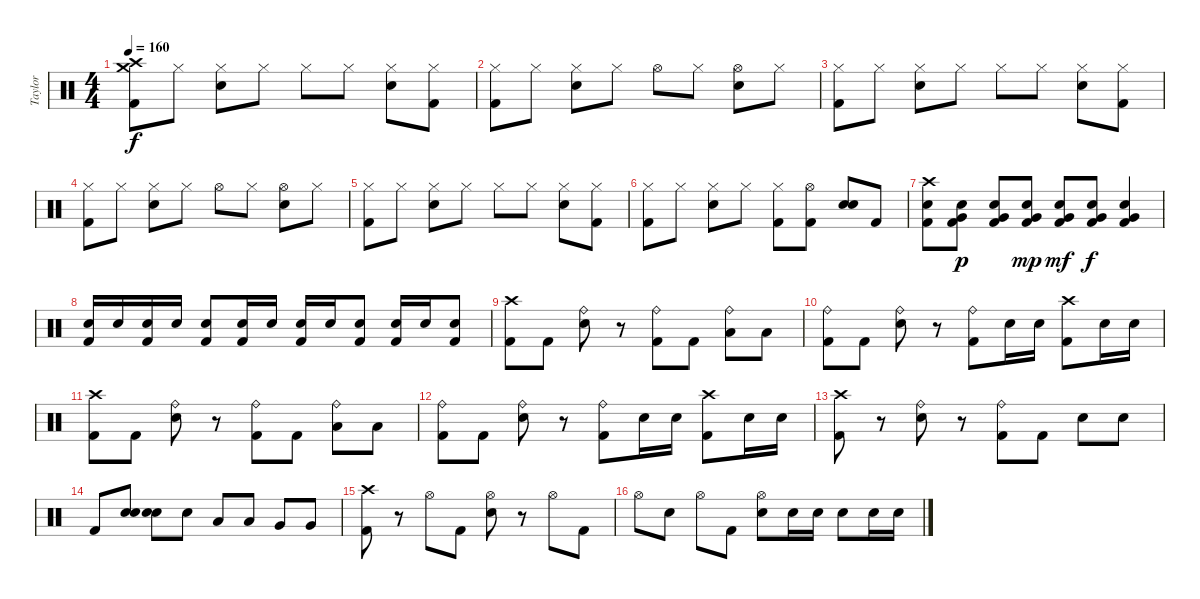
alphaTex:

\track ("Taylor" "Taylor") {instrument percussion}
\staff {score}
\articulation defaults
\ts (4 4)
\tempo 160
\clef neutral
\ks c
("Crash high (hit)" "Crash medium (hit)" "Kick (hit) 2").8{dy f} "Hi-Hat (closed)".8 ("Hi-Hat (closed)" "Electric Snare (hit)").8 "Hi-Hat (closed)".8 "Hi-Hat (closed)".8 "Hi-Hat (closed)".8 ("Hi-Hat (closed)" "Electric Snare (hit)").8 ("Hi-Hat (closed)" "Kick (hit) 2").8 |
("Hi-Hat (closed)" "Kick (hit) 2").8 "Hi-Hat (closed)".8 ("Hi-Hat (closed)" "Electric Snare (hit)").8 "Hi-Hat (closed)".8 "Hi-Hat (open)".8 "Hi-Hat (closed)".8 ("Hi-Hat (open)" "Electric Snare (hit)").8 "Hi-Hat (closed)".8 |
("Hi-Hat (closed)" "Kick (hit) 2").8 "Hi-Hat (closed)".8 ("Hi-Hat (closed)" "Electric Snare (hit)").8 "Hi-Hat (closed)".8 "Hi-Hat (closed)".8 "Hi-Hat (closed)".8 ("Hi-Hat (closed)" "Electric Snare (hit)").8 ("Hi-Hat (closed)" "Kick (hit) 2").8 |
("Hi-Hat (closed)" "Kick (hit) 2").8 "Hi-Hat (closed)".8 ("Hi-Hat (closed)" "Electric Snare (hit)").8 "Hi-Hat (closed)".8 "Hi-Hat (open)".8 "Hi-Hat (closed)".8 ("Hi-Hat (open)" "Electric Snare (hit)").8 "Hi-Hat (closed)".8 |
("Hi-Hat (closed)" "Kick (hit) 2").8 "Hi-Hat (closed)".8 ("Hi-Hat (closed)" "Electric Snare (hit)").8 "Hi-Hat (closed)".8 "Hi-Hat (closed)".8 "Hi-Hat (closed)".8 ("Hi-Hat (closed)" "Electric Snare (hit)").8 ("Hi-Hat (closed)" "Kick (hit) 2").8 |
("Hi-Hat (closed)" "Kick (hit) 2").8 "Hi-Hat (closed)".8 ("Hi-Hat (closed)" "Electric Snare (hit)").8 "Hi-Hat (closed)".8 ("Hi-Hat (closed)" "Kick (hit) 2").8 ("Hi-Hat (open)" "Kick (hit) 2").8 ("Electric Snare (hit)" "Electric Snare (hit)").8 "Kick (hit) 2".8 |
("Crash high (hit)" "Electric Snare (hit)" "Kick (hit) 2").8 ("Electric Snare (hit)" "Very Low Tom (hit)" "Kick (hit) 2").8{dy p} ("Electric Snare (hit)" "Very Low Tom (hit)" "Kick (hit) 2").8 ("Electric Snare (hit)" "Very Low Tom (hit)" "Kick (hit) 2").8{dy mp} ("Electric Snare (hit)" "Very Low Tom (hit)" "Kick (hit) 2").8{dy mf} ("Electric Snare (hit)" "Very Low Tom (hit)" "Kick (hit) 2").8{dy f} ("Electric Snare (hit)" "Very Low Tom (hit)" "Kick (hit) 2").4 |
("Electric Snare (hit)" "Kick (hit) 2").16 "Electric Snare (hit)".16 ("Electric Snare (hit)" "Kick (hit) 2").16 "Electric Snare (hit)".16 ("Electric Snare (hit)" "Kick (hit) 2").8 ("Electric Snare (hit)" "Kick (hit) 2").16 "Electric Snare (hit)".16 ("Electric Snare (hit)" "Kick (hit) 2").16 "Electric Snare (hit)".16 ("Electric Snare (hit)" "Kick (hit) 2").8 ("Electric Snare (hit)" "Kick (hit) 2").16 "Electric Snare (hit)".16 ("Electric Snare (hit)" "Kick (hit) 2").8 |
("Crash high (hit)" "Kick (hit) 2").8 "Kick (hit) 2".8 ("Ride (bell)" "Electric Snare (hit)").8 r.8 ("Ride (bell)" "Kick (hit) 2").8 "Kick (hit) 2".8 ("Ride (bell)" "Low Tom (hit)").8 "Low Tom (hit)".8 |
("Ride (bell)" "Kick (hit) 2").8 "Kick (hit) 2".8 ("Ride (bell)" "Electric Snare (hit)").8 r.8 ("Ride (bell)" "Kick (hit) 2").8 "Electric Snare (hit)".16 "Electric Snare (hit)".16 ("Crash high (hit)" "Kick (hit) 2").8 "Electric Snare (hit)".16 "Electric Snare (hit)".16 |
("Crash high (hit)" "Kick (hit) 2").8 "Kick (hit) 2".8 ("Ride (bell)" "Electric Snare (hit)").8 r.8 ("Ride (bell)" "Kick (hit) 2").8 "Kick (hit) 2".8 ("Ride (bell)" "Low Tom (hit)").8 "Low Tom (hit)".8 |
("Ride (bell)" "Kick (hit) 2").8 "Kick (hit) 2".8 ("Ride (bell)" "Electric Snare (hit)").8 r.8 ("Ride (bell)" "Kick (hit) 2").8 "Electric Snare (hit)".16 "Electric Snare (hit)".16 ("Crash high (hit)" "Kick (hit) 2").8 "Electric Snare (hit)".16 "Electric Snare (hit)".16 |
("Crash high (hit)" "Kick (hit) 2").8 r.8 ("Ride (bell)" "Electric Snare (hit)").8 r.8 ("Ride (bell)" "Kick (hit) 2").8 "Kick (hit) 2".8 "Electric Snare (hit)".8 "Electric Snare (hit)".8 |
"Kick (hit) 2".8 ("Electric Snare (hit)" "Electric Snare (hit)").8 ("Electric Snare (hit)" "Electric Snare (hit)").8 "Electric Snare (hit)".8 "Low Tom (hit)".8 "Low Tom (hit)".8 "Very Low Tom (hit)".8 "Very Low Tom (hit)".8 |
("Crash high (hit)" "Kick (hit) 2").8 r.8 "Hi-Hat (open)".8 "Kick (hit) 2".8 ("Hi-Hat (open)" "Electric Snare (hit)").8 r.8 "Hi-Hat (open)".8 "Kick (hit) 2".8 |
"Hi-Hat (open)".8 "Electric Snare (hit)".8 "Hi-Hat (open)".8 "Kick (hit) 2".8 ("Hi-Hat (open)" "Electric Snare (hit)").8 "Electric Snare (hit)".16 "Electric Snare (hit)".16 "Electric Snare (hit)".8 "Electric Snare (hit)".16 "Electric Snare (hit)".16
